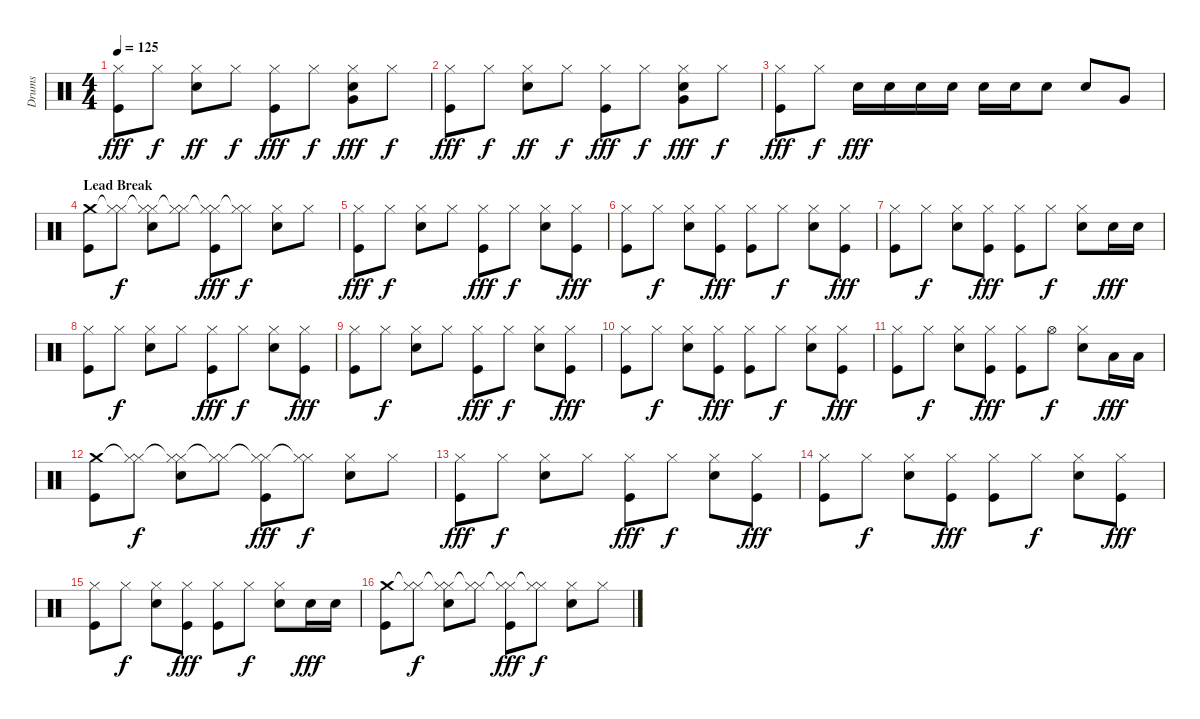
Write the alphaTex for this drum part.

\track ("Drums" "Drums") {instrument percussion}
\staff {score}
\articulation defaults
\ts (4 4)
\tempo 125
\clef neutral
\ks c
("Hi-Hat (closed)" "Kick (hit)").8{dy fff} "Hi-Hat (closed)".8{dy f} ("Hi-Hat (closed)" "Snare (hit) 2").8{dy ff} "Hi-Hat (closed)".8{dy f} ("Hi-Hat (closed)" "Kick (hit)").8{dy fff} "Hi-Hat (closed)".8{dy f} ("Hi-Hat (closed)" "Snare (hit) 2" "Very Low Tom (hit)").8{dy fff} "Hi-Hat (closed)".8{dy f} |
("Hi-Hat (closed)" "Kick (hit)").8{dy fff} "Hi-Hat (closed)".8{dy f} ("Hi-Hat (closed)" "Snare (hit) 2").8{dy ff} "Hi-Hat (closed)".8{dy f} ("Hi-Hat (closed)" "Kick (hit)").8{dy fff} "Hi-Hat (closed)".8{dy f} ("Hi-Hat (closed)" "Snare (hit) 2" "Very Low Tom (hit)").8{dy fff} "Hi-Hat (closed)".8{dy f} |
("Hi-Hat (closed)" "Kick (hit)").8{dy fff} "Hi-Hat (closed)".8{dy f} "Snare (hit) 2".16{dy fff} "Snare (hit) 2".16 "Snare (hit) 2".16 "Snare (hit) 2".16 "Snare (hit) 2".16 "Snare (hit) 2".16 "Snare (hit) 2".8 "Snare (hit) 2".8 "Very Low Tom (hit)".8 |
\section ("" "Lead Break")
("Crash medium (hit)" "Kick (hit)").8 ("Hi-Hat (closed)"{t} "Hi-Hat (closed)").8{dy f} ("Hi-Hat (closed)"{t} "Hi-Hat (closed)" "Snare (hit) 2").8 ("Hi-Hat (closed)"{t} "Hi-Hat (closed)").8 ("Hi-Hat (closed)"{t} "Hi-Hat (closed)" "Kick (hit)").8{dy fff} ("Hi-Hat (closed)"{t} "Hi-Hat (closed)").8{dy f} ("Hi-Hat (closed)" "Snare (hit) 2").8 "Hi-Hat (closed)".8 |
("Hi-Hat (closed)" "Kick (hit)").8{dy fff} "Hi-Hat (closed)".8{dy f} ("Hi-Hat (closed)" "Snare (hit) 2").8 "Hi-Hat (closed)".8 ("Hi-Hat (closed)" "Kick (hit)").8{dy fff} "Hi-Hat (closed)".8{dy f} ("Hi-Hat (closed)" "Snare (hit) 2").8 ("Hi-Hat (closed)" "Kick (hit)").8{dy fff} |
("Hi-Hat (closed)" "Kick (hit)").8 "Hi-Hat (closed)".8{dy f} ("Hi-Hat (closed)" "Snare (hit) 2").8 ("Hi-Hat (closed)" "Kick (hit)").8{dy fff} ("Hi-Hat (closed)" "Kick (hit)").8 "Hi-Hat (closed)".8{dy f} ("Hi-Hat (closed)" "Snare (hit) 2").8 ("Hi-Hat (closed)" "Kick (hit)").8{dy fff} |
("Hi-Hat (closed)" "Kick (hit)").8 "Hi-Hat (closed)".8{dy f} ("Hi-Hat (closed)" "Snare (hit) 2").8 ("Hi-Hat (closed)" "Kick (hit)").8{dy fff} ("Hi-Hat (closed)" "Kick (hit)").8 "Hi-Hat (closed)".8{dy f} ("Hi-Hat (closed)" "Snare (hit) 2").8 "Snare (hit) 2".16{dy fff} "Snare (hit) 2".16 |
("Hi-Hat (closed)" "Kick (hit)").8 "Hi-Hat (closed)".8{dy f} ("Hi-Hat (closed)" "Snare (hit) 2").8 "Hi-Hat (closed)".8 ("Hi-Hat (closed)" "Kick (hit)").8{dy fff} "Hi-Hat (closed)".8{dy f} ("Hi-Hat (closed)" "Snare (hit) 2").8 ("Hi-Hat (closed)" "Kick (hit)").8{dy fff} |
("Hi-Hat (closed)" "Kick (hit)").8 "Hi-Hat (closed)".8{dy f} ("Hi-Hat (closed)" "Snare (hit) 2").8 "Hi-Hat (closed)".8 ("Hi-Hat (closed)" "Kick (hit)").8{dy fff} "Hi-Hat (closed)".8{dy f} ("Hi-Hat (closed)" "Snare (hit) 2").8 ("Hi-Hat (closed)" "Kick (hit)").8{dy fff} |
("Hi-Hat (closed)" "Kick (hit)").8 "Hi-Hat (closed)".8{dy f} ("Hi-Hat (closed)" "Snare (hit) 2").8 ("Hi-Hat (closed)" "Kick (hit)").8{dy fff} ("Hi-Hat (closed)" "Kick (hit)").8 "Hi-Hat (closed)".8{dy f} ("Hi-Hat (closed)" "Snare (hit) 2").8 ("Hi-Hat (closed)" "Kick (hit)").8{dy fff} |
("Hi-Hat (closed)" "Kick (hit)").8 "Hi-Hat (closed)".8{dy f} ("Hi-Hat (closed)" "Snare (hit) 2").8 ("Hi-Hat (closed)" "Kick (hit)").8{dy fff} ("Hi-Hat (closed)" "Kick (hit)").8 "Hi-Hat (open)".8{dy f} ("Hi-Hat (closed)" "Snare (hit) 2").8 "Low Tom (hit)".16{dy fff} "Low Tom (hit)".16 |
("Crash medium (hit)" "Kick (hit)").8 ("Hi-Hat (closed)"{t} "Hi-Hat (closed)").8{dy f} ("Hi-Hat (closed)"{t} "Hi-Hat (closed)" "Snare (hit) 2").8 ("Hi-Hat (closed)"{t} "Hi-Hat (closed)").8 ("Hi-Hat (closed)"{t} "Hi-Hat (closed)" "Kick (hit)").8{dy fff} ("Hi-Hat (closed)"{t} "Hi-Hat (closed)").8{dy f} ("Hi-Hat (closed)" "Snare (hit) 2").8 "Hi-Hat (closed)".8 |
("Hi-Hat (closed)" "Kick (hit)").8{dy fff} "Hi-Hat (closed)".8{dy f} ("Hi-Hat (closed)" "Snare (hit) 2").8 "Hi-Hat (closed)".8 ("Hi-Hat (closed)" "Kick (hit)").8{dy fff} "Hi-Hat (closed)".8{dy f} ("Hi-Hat (closed)" "Snare (hit) 2").8 ("Hi-Hat (closed)" "Kick (hit)").8{dy fff} |
("Hi-Hat (closed)" "Kick (hit)").8 "Hi-Hat (closed)".8{dy f} ("Hi-Hat (closed)" "Snare (hit) 2").8 ("Hi-Hat (closed)" "Kick (hit)").8{dy fff} ("Hi-Hat (closed)" "Kick (hit)").8 "Hi-Hat (closed)".8{dy f} ("Hi-Hat (closed)" "Snare (hit) 2").8 ("Hi-Hat (closed)" "Kick (hit)").8{dy fff} |
("Hi-Hat (closed)" "Kick (hit)").8 "Hi-Hat (closed)".8{dy f} ("Hi-Hat (closed)" "Snare (hit) 2").8 ("Hi-Hat (closed)" "Kick (hit)").8{dy fff} ("Hi-Hat (closed)" "Kick (hit)").8 "Hi-Hat (closed)".8{dy f} ("Hi-Hat (closed)" "Snare (hit) 2").8 "Snare (hit) 2".16{dy fff} "Snare (hit) 2".16 |
("Crash medium (hit)" "Kick (hit)").8 ("Hi-Hat (closed)"{t} "Hi-Hat (closed)").8{dy f} ("Hi-Hat (closed)"{t} "Hi-Hat (closed)" "Snare (hit) 2").8 ("Hi-Hat (closed)"{t} "Hi-Hat (closed)").8 ("Hi-Hat (closed)"{t} "Hi-Hat (closed)" "Kick (hit)").8{dy fff} ("Hi-Hat (closed)"{t} "Hi-Hat (closed)").8{dy f} ("Hi-Hat (closed)" "Snare (hit) 2").8 "Hi-Hat (closed)".8
